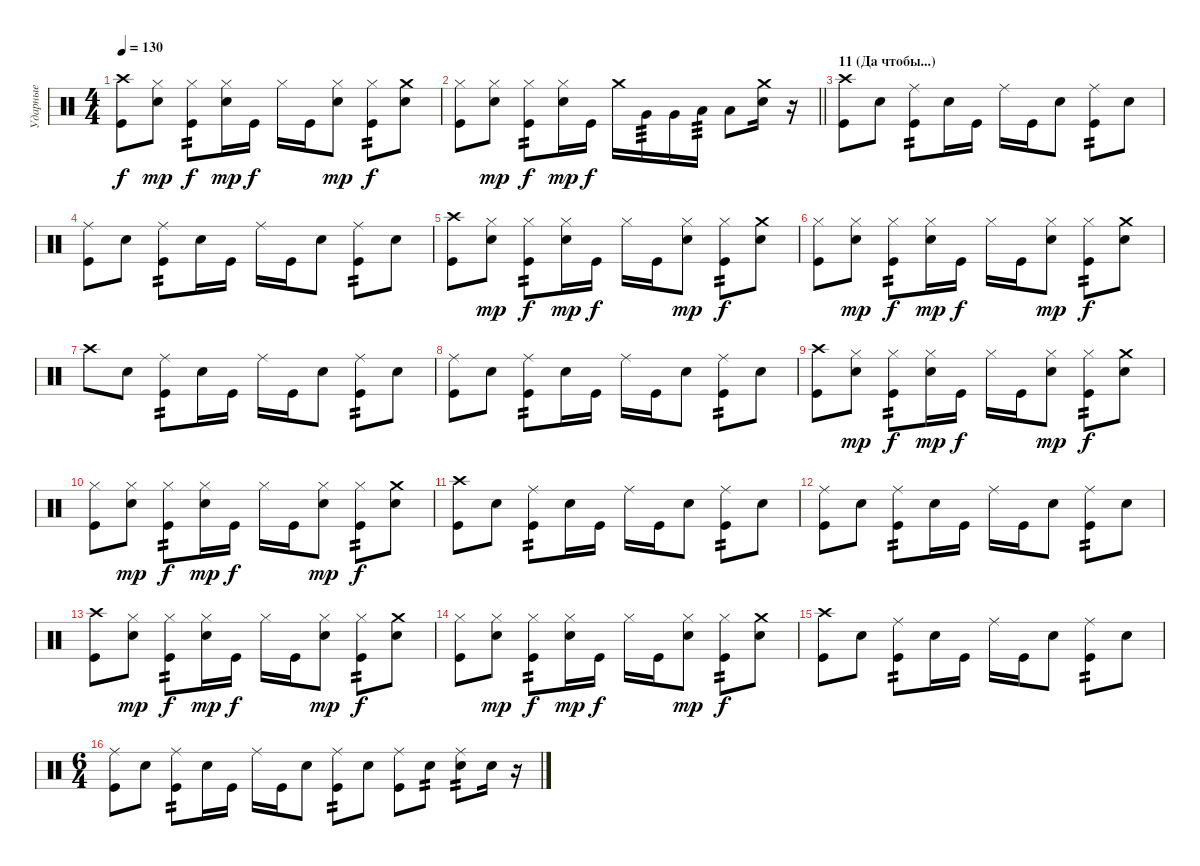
\track ("Ударные" "Ударные") {instrument percussion}
\staff {score}
\articulation defaults
\ts (4 4)
\tempo 130
\clef neutral
\ks c
("Crash high (hit)" "Kick (hit)").8{dy f} ("Hi-Hat (closed)" "Snare (hit) 2").8{dy mp} ("Hi-Hat (closed)" "Kick (hit)").8{tp 2 dy f} ("Hi-Hat (closed)" "Snare (hit) 2").16{dy mp} "Kick (hit)".16{dy f} "Hi-Hat (closed)".16 "Kick (hit)".16 ("Hi-Hat (closed)" "Snare (hit) 2").8{dy mp} ("Hi-Hat (closed)" "Kick (hit)").8{tp 2 dy f} ("Crash medium (hit)" "Snare (hit) 2").8 |
\barLineRight lightlight
("Hi-Hat (closed)" "Kick (hit)").8 ("Hi-Hat (closed)" "Snare (hit) 2").8{dy mp} ("Hi-Hat (closed)" "Kick (hit)").8{tp 2 dy f} ("Hi-Hat (closed)" "Snare (hit) 2").16{dy mp} "Kick (hit)".16{dy f} "Crash medium (hit)".16 "Very Low Tom (hit)".16{tp 3} "Very Low Tom (hit)".16 "Low Floor Tom (hit)".16{tp 3} "Low Floor Tom (hit)".8 ("Crash medium (hit)" "Snare (hit) 2").16 r.16 |
\section ("" "11 (Да чтобы...)")
("Crash high (hit)" "Kick (hit)").8 "Snare (hit) 2".8 ("Ride (middle)" "Kick (hit)").8{tp 2} "Snare (hit) 2".16 "Kick (hit)".16 "Ride (middle)".16 "Kick (hit)".16 "Snare (hit) 2".8 ("Ride (middle)" "Kick (hit)").8{tp 2} "Snare (hit) 2".8 |
("Ride (middle)" "Kick (hit)").8 "Snare (hit) 2".8 ("Ride (middle)" "Kick (hit)").8{tp 2} "Snare (hit) 2".16 "Kick (hit)".16 "Ride (middle)".16 "Kick (hit)".16 "Snare (hit) 2".8 ("Ride (middle)" "Kick (hit)").8{tp 2} "Snare (hit) 2".8 |
("Crash high (hit)" "Kick (hit)").8 ("Hi-Hat (closed)" "Snare (hit) 2").8{dy mp} ("Hi-Hat (closed)" "Kick (hit)").8{tp 2 dy f} ("Hi-Hat (closed)" "Snare (hit) 2").16{dy mp} "Kick (hit)".16{dy f} "Hi-Hat (closed)".16 "Kick (hit)".16 ("Hi-Hat (closed)" "Snare (hit) 2").8{dy mp} ("Hi-Hat (closed)" "Kick (hit)").8{tp 2 dy f} ("Crash medium (hit)" "Snare (hit) 2").8 |
("Hi-Hat (closed)" "Kick (hit)").8 ("Hi-Hat (closed)" "Snare (hit) 2").8{dy mp} ("Hi-Hat (closed)" "Kick (hit)").8{tp 2 dy f} ("Hi-Hat (closed)" "Snare (hit) 2").16{dy mp} "Kick (hit)".16{dy f} "Hi-Hat (closed)".16 "Kick (hit)".16 ("Hi-Hat (closed)" "Snare (hit) 2").8{dy mp} ("Hi-Hat (closed)" "Kick (hit)").8{tp 2 dy f} ("Crash medium (hit)" "Snare (hit) 2").8 |
"Crash high (hit)".8 "Snare (hit) 2".8 ("Ride (middle)" "Kick (hit)").8{tp 2} "Snare (hit) 2".16 "Kick (hit)".16 "Ride (middle)".16 "Kick (hit)".16 "Snare (hit) 2".8 ("Ride (middle)" "Kick (hit)").8{tp 2} "Snare (hit) 2".8 |
("Ride (middle)" "Kick (hit)").8 "Snare (hit) 2".8 ("Ride (middle)" "Kick (hit)").8{tp 2} "Snare (hit) 2".16 "Kick (hit)".16 "Ride (middle)".16 "Kick (hit)".16 "Snare (hit) 2".8 ("Ride (middle)" "Kick (hit)").8{tp 2} "Snare (hit) 2".8 |
("Crash high (hit)" "Kick (hit)").8 ("Hi-Hat (closed)" "Snare (hit) 2").8{dy mp} ("Hi-Hat (closed)" "Kick (hit)").8{tp 2 dy f} ("Hi-Hat (closed)" "Snare (hit) 2").16{dy mp} "Kick (hit)".16{dy f} "Hi-Hat (closed)".16 "Kick (hit)".16 ("Hi-Hat (closed)" "Snare (hit) 2").8{dy mp} ("Hi-Hat (closed)" "Kick (hit)").8{tp 2 dy f} ("Crash medium (hit)" "Snare (hit) 2").8 |
("Hi-Hat (closed)" "Kick (hit)").8 ("Hi-Hat (closed)" "Snare (hit) 2").8{dy mp} ("Hi-Hat (closed)" "Kick (hit)").8{tp 2 dy f} ("Hi-Hat (closed)" "Snare (hit) 2").16{dy mp} "Kick (hit)".16{dy f} "Hi-Hat (closed)".16 "Kick (hit)".16 ("Hi-Hat (closed)" "Snare (hit) 2").8{dy mp} ("Hi-Hat (closed)" "Kick (hit)").8{tp 2 dy f} ("Crash medium (hit)" "Snare (hit) 2").8 |
("Crash high (hit)" "Kick (hit)").8 "Snare (hit) 2".8 ("Ride (middle)" "Kick (hit)").8{tp 2} "Snare (hit) 2".16 "Kick (hit)".16 "Ride (middle)".16 "Kick (hit)".16 "Snare (hit) 2".8 ("Ride (middle)" "Kick (hit)").8{tp 2} "Snare (hit) 2".8 |
("Ride (middle)" "Kick (hit)").8 "Snare (hit) 2".8 ("Ride (middle)" "Kick (hit)").8{tp 2} "Snare (hit) 2".16 "Kick (hit)".16 "Ride (middle)".16 "Kick (hit)".16 "Snare (hit) 2".8 ("Ride (middle)" "Kick (hit)").8{tp 2} "Snare (hit) 2".8 |
("Crash high (hit)" "Kick (hit)").8 ("Hi-Hat (closed)" "Snare (hit) 2").8{dy mp} ("Hi-Hat (closed)" "Kick (hit)").8{tp 2 dy f} ("Hi-Hat (closed)" "Snare (hit) 2").16{dy mp} "Kick (hit)".16{dy f} "Hi-Hat (closed)".16 "Kick (hit)".16 ("Hi-Hat (closed)" "Snare (hit) 2").8{dy mp} ("Hi-Hat (closed)" "Kick (hit)").8{tp 2 dy f} ("Crash medium (hit)" "Snare (hit) 2").8 |
("Hi-Hat (closed)" "Kick (hit)").8 ("Hi-Hat (closed)" "Snare (hit) 2").8{dy mp} ("Hi-Hat (closed)" "Kick (hit)").8{tp 2 dy f} ("Hi-Hat (closed)" "Snare (hit) 2").16{dy mp} "Kick (hit)".16{dy f} "Hi-Hat (closed)".16 "Kick (hit)".16 ("Hi-Hat (closed)" "Snare (hit) 2").8{dy mp} ("Hi-Hat (closed)" "Kick (hit)").8{tp 2 dy f} ("Crash medium (hit)" "Snare (hit) 2").8 |
("Crash high (hit)" "Kick (hit)").8 "Snare (hit) 2".8 ("Ride (middle)" "Kick (hit)").8{tp 2} "Snare (hit) 2".16 "Kick (hit)".16 "Ride (middle)".16 "Kick (hit)".16 "Snare (hit) 2".8 ("Ride (middle)" "Kick (hit)").8{tp 2} "Snare (hit) 2".8 |
\ts (6 4)
("Ride (middle)" "Kick (hit)").8 "Snare (hit) 2".8 ("Ride (middle)" "Kick (hit)").8{tp 2} "Snare (hit) 2".16 "Kick (hit)".16 "Ride (middle)".16 "Kick (hit)".16 "Snare (hit) 2".8 ("Ride (middle)" "Kick (hit)").8{tp 2} "Snare (hit) 2".8 ("Ride (middle)" "Kick (hit)").8 "Snare (hit) 2".8{tp 2} ("Ride (middle)" "Snare (hit) 2").8{tp 2} "Snare (hit) 2".16 r.16
